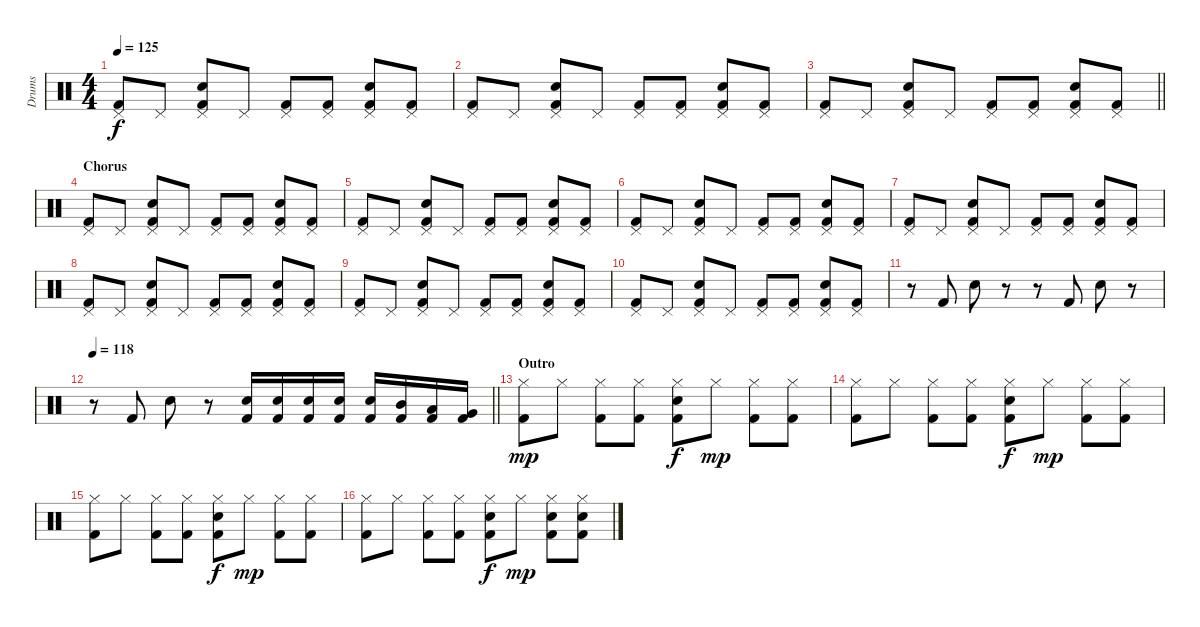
\track ("Drums" "Drums") {instrument percussion}
\staff {score}
\articulation defaults
\ts (4 4)
\tempo 125
\clef neutral
\ks c
("Pedal Hi-Hat (hit)" "Kick (hit) 2").8{dy f} "Pedal Hi-Hat (hit)".8 ("Pedal Hi-Hat (hit)" "Snare (hit) 2" "Kick (hit) 2").8 "Pedal Hi-Hat (hit)".8 ("Pedal Hi-Hat (hit)" "Kick (hit) 2").8 ("Pedal Hi-Hat (hit)" "Kick (hit) 2").8 ("Pedal Hi-Hat (hit)" "Snare (hit) 2" "Kick (hit) 2").8 ("Pedal Hi-Hat (hit)" "Kick (hit) 2").8 |
("Pedal Hi-Hat (hit)" "Kick (hit) 2").8 "Pedal Hi-Hat (hit)".8 ("Pedal Hi-Hat (hit)" "Snare (hit) 2" "Kick (hit) 2").8 "Pedal Hi-Hat (hit)".8 ("Pedal Hi-Hat (hit)" "Kick (hit) 2").8 ("Pedal Hi-Hat (hit)" "Kick (hit) 2").8 ("Pedal Hi-Hat (hit)" "Snare (hit) 2" "Kick (hit) 2").8 ("Pedal Hi-Hat (hit)" "Kick (hit) 2").8 |
\barLineRight lightlight
("Pedal Hi-Hat (hit)" "Kick (hit) 2").8 "Pedal Hi-Hat (hit)".8 ("Pedal Hi-Hat (hit)" "Snare (hit) 2" "Kick (hit) 2").8 "Pedal Hi-Hat (hit)".8 ("Pedal Hi-Hat (hit)" "Kick (hit) 2").8 ("Pedal Hi-Hat (hit)" "Kick (hit) 2").8 ("Pedal Hi-Hat (hit)" "Snare (hit) 2" "Kick (hit) 2").8 ("Pedal Hi-Hat (hit)" "Kick (hit) 2").8 |
\section ("" "Chorus")
("Pedal Hi-Hat (hit)" "Kick (hit) 2").8 "Pedal Hi-Hat (hit)".8 ("Pedal Hi-Hat (hit)" "Snare (hit) 2" "Kick (hit) 2").8 "Pedal Hi-Hat (hit)".8 ("Pedal Hi-Hat (hit)" "Kick (hit) 2").8 ("Pedal Hi-Hat (hit)" "Kick (hit) 2").8 ("Pedal Hi-Hat (hit)" "Snare (hit) 2" "Kick (hit) 2").8 ("Pedal Hi-Hat (hit)" "Kick (hit) 2").8 |
("Pedal Hi-Hat (hit)" "Kick (hit) 2").8 "Pedal Hi-Hat (hit)".8 ("Pedal Hi-Hat (hit)" "Snare (hit) 2" "Kick (hit) 2").8 "Pedal Hi-Hat (hit)".8 ("Pedal Hi-Hat (hit)" "Kick (hit) 2").8 ("Pedal Hi-Hat (hit)" "Kick (hit) 2").8 ("Pedal Hi-Hat (hit)" "Snare (hit) 2" "Kick (hit) 2").8 ("Pedal Hi-Hat (hit)" "Kick (hit) 2").8 |
("Pedal Hi-Hat (hit)" "Kick (hit) 2").8 "Pedal Hi-Hat (hit)".8 ("Pedal Hi-Hat (hit)" "Snare (hit) 2" "Kick (hit) 2").8 "Pedal Hi-Hat (hit)".8 ("Pedal Hi-Hat (hit)" "Kick (hit) 2").8 ("Pedal Hi-Hat (hit)" "Kick (hit) 2").8 ("Pedal Hi-Hat (hit)" "Snare (hit) 2" "Kick (hit) 2").8 ("Pedal Hi-Hat (hit)" "Kick (hit) 2").8 |
("Pedal Hi-Hat (hit)" "Kick (hit) 2").8 "Pedal Hi-Hat (hit)".8 ("Pedal Hi-Hat (hit)" "Snare (hit) 2" "Kick (hit) 2").8 "Pedal Hi-Hat (hit)".8 ("Pedal Hi-Hat (hit)" "Kick (hit) 2").8 ("Pedal Hi-Hat (hit)" "Kick (hit) 2").8 ("Pedal Hi-Hat (hit)" "Snare (hit) 2" "Kick (hit) 2").8 ("Pedal Hi-Hat (hit)" "Kick (hit) 2").8 |
("Pedal Hi-Hat (hit)" "Kick (hit) 2").8 "Pedal Hi-Hat (hit)".8 ("Pedal Hi-Hat (hit)" "Snare (hit) 2" "Kick (hit) 2").8 "Pedal Hi-Hat (hit)".8 ("Pedal Hi-Hat (hit)" "Kick (hit) 2").8 ("Pedal Hi-Hat (hit)" "Kick (hit) 2").8 ("Pedal Hi-Hat (hit)" "Snare (hit) 2" "Kick (hit) 2").8 ("Pedal Hi-Hat (hit)" "Kick (hit) 2").8 |
("Pedal Hi-Hat (hit)" "Kick (hit) 2").8 "Pedal Hi-Hat (hit)".8 ("Pedal Hi-Hat (hit)" "Snare (hit) 2" "Kick (hit) 2").8 "Pedal Hi-Hat (hit)".8 ("Pedal Hi-Hat (hit)" "Kick (hit) 2").8 ("Pedal Hi-Hat (hit)" "Kick (hit) 2").8 ("Pedal Hi-Hat (hit)" "Snare (hit) 2" "Kick (hit) 2").8 ("Pedal Hi-Hat (hit)" "Kick (hit) 2").8 |
("Pedal Hi-Hat (hit)" "Kick (hit) 2").8 "Pedal Hi-Hat (hit)".8 ("Pedal Hi-Hat (hit)" "Snare (hit) 2" "Kick (hit) 2").8 "Pedal Hi-Hat (hit)".8 ("Pedal Hi-Hat (hit)" "Kick (hit) 2").8 ("Pedal Hi-Hat (hit)" "Kick (hit) 2").8 ("Pedal Hi-Hat (hit)" "Snare (hit) 2" "Kick (hit) 2").8 ("Pedal Hi-Hat (hit)" "Kick (hit) 2").8 |
r.8 "Kick (hit) 2".8 "Snare (hit) 2".8 r.8 r.8 "Kick (hit) 2".8 "Snare (hit) 2".8 r.8 |
\tempo 118
\barLineRight lightlight
r.8 "Kick (hit) 2".8 "Snare (hit) 2".8 r.8 ("Snare (hit) 2" "Kick (hit) 2").16 ("Snare (hit) 2" "Kick (hit) 2").16 ("Snare (hit) 2" "Kick (hit) 2").16 ("Snare (hit) 2" "Kick (hit) 2").16 ("Snare (hit) 2" "Kick (hit) 2").16 ("Mid Tom (hit)" "Kick (hit) 2").16 ("Low Tom (hit)" "Kick (hit) 2").16 ("Very Low Tom (hit)" "Kick (hit) 2").16 |
\section ("" "Outro")
("Hi-Hat (closed)" "Kick (hit) 2").8{dy mp} "Hi-Hat (closed)".8 ("Hi-Hat (closed)" "Kick (hit) 2").8 ("Hi-Hat (closed)" "Kick (hit) 2").8 ("Hi-Hat (closed)" "Snare (hit) 2" "Kick (hit) 2").8{dy f} "Hi-Hat (closed)".8{dy mp} ("Hi-Hat (closed)" "Kick (hit) 2").8 ("Hi-Hat (closed)" "Kick (hit) 2").8 |
("Hi-Hat (closed)" "Kick (hit) 2").8 "Hi-Hat (closed)".8 ("Hi-Hat (closed)" "Kick (hit) 2").8 ("Hi-Hat (closed)" "Kick (hit) 2").8 ("Hi-Hat (closed)" "Snare (hit) 2" "Kick (hit) 2").8{dy f} "Hi-Hat (closed)".8{dy mp} ("Hi-Hat (closed)" "Kick (hit) 2").8 ("Hi-Hat (closed)" "Kick (hit) 2").8 |
("Hi-Hat (closed)" "Kick (hit) 2").8 "Hi-Hat (closed)".8 ("Hi-Hat (closed)" "Kick (hit) 2").8 ("Hi-Hat (closed)" "Kick (hit) 2").8 ("Hi-Hat (closed)" "Snare (hit) 2" "Kick (hit) 2").8{dy f} "Hi-Hat (closed)".8{dy mp} ("Hi-Hat (closed)" "Kick (hit) 2").8 ("Hi-Hat (closed)" "Kick (hit) 2").8 |
("Hi-Hat (closed)" "Kick (hit) 2").8 "Hi-Hat (closed)".8 ("Hi-Hat (closed)" "Kick (hit) 2").8 ("Hi-Hat (closed)" "Kick (hit) 2").8 ("Hi-Hat (closed)" "Snare (hit) 2" "Kick (hit) 2").8{dy f} "Hi-Hat (closed)".8{dy mp} ("Hi-Hat (closed)" "Snare (hit) 2" "Kick (hit) 2").8 ("Hi-Hat (closed)" "Snare (hit) 2" "Kick (hit) 2").8
